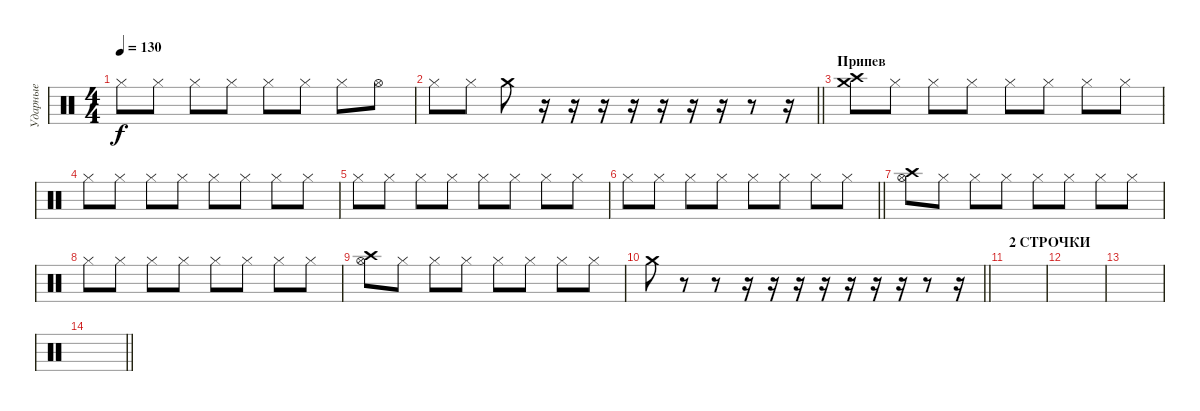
\track ("Ударные" "Ударные") {instrument percussion}
\staff {score}
\articulation defaults
\ts (4 4)
\tempo 130
\clef neutral
\ks c "Hi-Hat (closed)".8{dy f} "Hi-Hat (closed)".8 "Hi-Hat (closed)".8 "Hi-Hat (closed)".8 "Hi-Hat (closed)".8 "Hi-Hat (closed)".8 "Hi-Hat (closed)".8 "Hi-Hat (open)".8
|
\barLineRight lightlight "Hi-Hat (closed)".8 "Hi-Hat (closed)".8 "Crash medium (hit)".8
r.16 r.16 r.16 r.16 r.16 r.16 r.16 r.8 r.16 |
\section ("" "Припев")
("Crash high (hit)" "Crash medium (hit)").8 "Hi-Hat (closed)".8 "Hi-Hat (closed)".8 "Hi-Hat (closed)".8 "Hi-Hat (closed)".8 "Hi-Hat (closed)".8 "Hi-Hat (closed)".8 "Hi-Hat (closed)".8 |
"Hi-Hat (closed)".8 "Hi-Hat (closed)".8 "Hi-Hat (closed)".8 "Hi-Hat (closed)".8 "Hi-Hat (closed)".8 "Hi-Hat (closed)".8 "Hi-Hat (closed)".8 "Hi-Hat (closed)".8 |
"Hi-Hat (closed)".8 "Hi-Hat (closed)".8 "Hi-Hat (closed)".8 "Hi-Hat (closed)".8 "Hi-Hat (closed)".8 "Hi-Hat (closed)".8 "Hi-Hat (closed)".8 "Hi-Hat (closed)".8 |
\barLineRight lightlight "Hi-Hat (closed)".8 "Hi-Hat (closed)".8 "Hi-Hat (closed)".8 "Hi-Hat (closed)".8 "Hi-Hat (closed)".8 "Hi-Hat (closed)".8 "Hi-Hat (closed)".8 "Hi-Hat (closed)".8
|
("Hi-Hat (open)" "Crash high (hit)").8 "Hi-Hat (closed)".8 "Hi-Hat (closed)".8 "Hi-Hat (closed)".8 "Hi-Hat (closed)".8 "Hi-Hat (closed)".8 "Hi-Hat (closed)".8 "Hi-Hat (closed)".8 |
"Hi-Hat (closed)".8 "Hi-Hat (closed)".8 "Hi-Hat (closed)".8 "Hi-Hat (closed)".8 "Hi-Hat (closed)".8 "Hi-Hat (closed)".8 "Hi-Hat (closed)".8 "Hi-Hat (closed)".8 |
("Hi-Hat (open)" "Crash high (hit)").8 "Hi-Hat (closed)".8 "Hi-Hat (closed)".8 "Hi-Hat (closed)".8 "Hi-Hat (closed)".8 "Hi-Hat (closed)".8 "Hi-Hat (closed)".8 "Hi-Hat (closed)".8 |
\barLineRight lightlight "Crash medium (hit)".8
r.8 r.8 r.16 r.16 r.16 r.16 r.16 r.16 r.16 r.8 r.16 |
\section ("" "2 СТРОЧКИ")
|
|
|
\barLineRight lightlight
